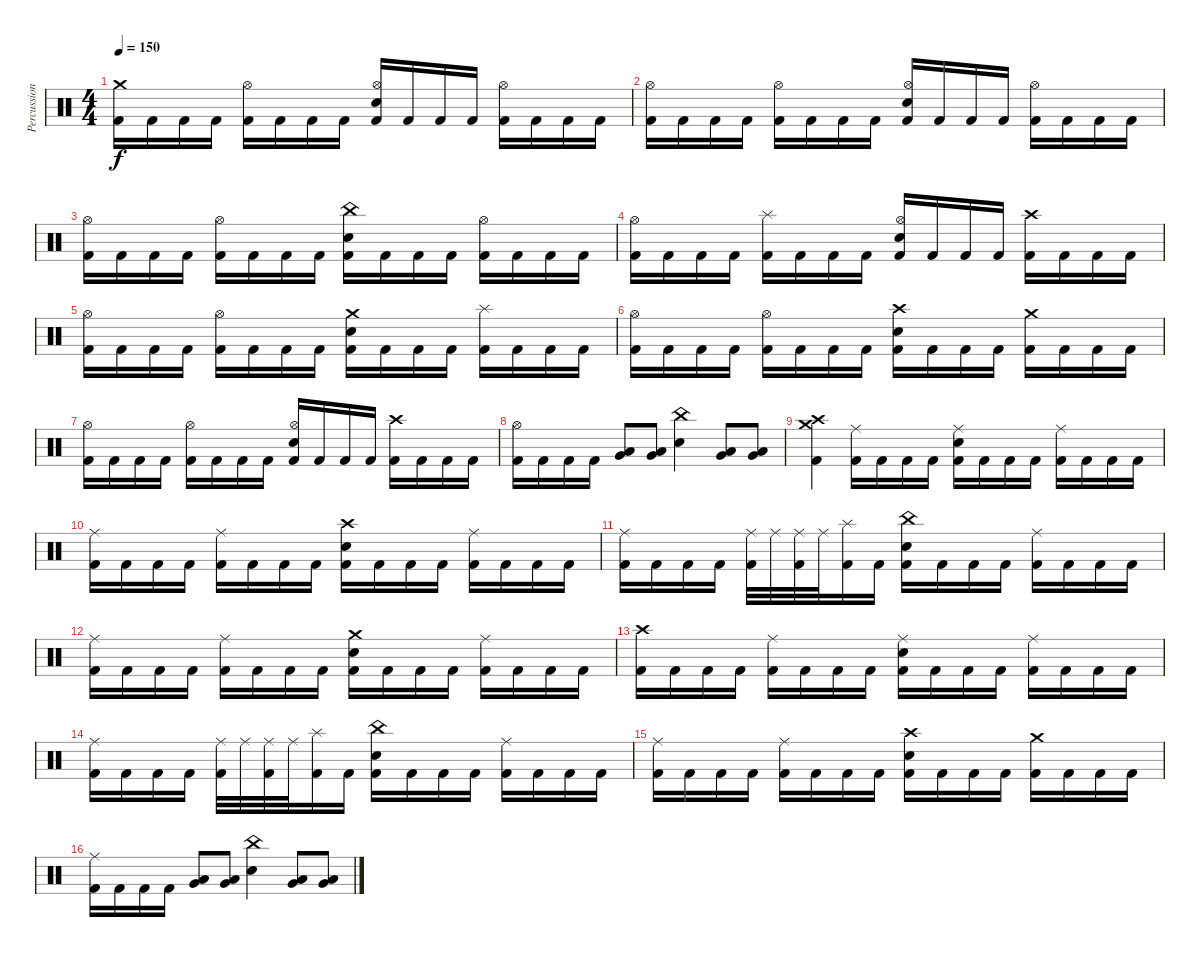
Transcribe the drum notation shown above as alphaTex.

\track ("Percussion" "Percussion") {instrument percussion}
\staff {score}
\articulation defaults
\ts (4 4)
\tempo 150
\clef neutral
\ks c
("Crash medium (hit)" "Kick (hit) 2").16{dy f} "Kick (hit) 2".16 "Kick (hit) 2".16 "Kick (hit) 2".16 ("Hi-Hat (open)" "Kick (hit) 2").16 "Kick (hit) 2".16 "Kick (hit) 2".16 "Kick (hit) 2".16 ("Hi-Hat (open)" "Electric Snare (hit)" "Kick (hit) 2").16 "Kick (hit) 2".16 "Kick (hit) 2".16 "Kick (hit) 2".16 ("Hi-Hat (open)" "Kick (hit) 2").16 "Kick (hit) 2".16 "Kick (hit) 2".16 "Kick (hit) 2".16 |
("Hi-Hat (open)" "Kick (hit) 2").16 "Kick (hit) 2".16 "Kick (hit) 2".16 "Kick (hit) 2".16 ("Hi-Hat (open)" "Kick (hit) 2").16 "Kick (hit) 2".16 "Kick (hit) 2".16 "Kick (hit) 2".16 ("Hi-Hat (open)" "Electric Snare (hit)" "Kick (hit) 2").16 "Kick (hit) 2".16 "Kick (hit) 2".16 "Kick (hit) 2".16 ("Hi-Hat (open)" "Kick (hit) 2").16 "Kick (hit) 2".16 "Kick (hit) 2".16 "Kick (hit) 2".16 |
("Hi-Hat (open)" "Kick (hit) 2").16 "Kick (hit) 2".16 "Kick (hit) 2".16 "Kick (hit) 2".16 ("Hi-Hat (open)" "Kick (hit) 2").16 "Kick (hit) 2".16 "Kick (hit) 2".16 "Kick (hit) 2".16 ("China (hit)" "Electric Snare (hit)" "Kick (hit) 2").16 "Kick (hit) 2".16 "Kick (hit) 2".16 "Kick (hit) 2".16 ("Hi-Hat (open)" "Kick (hit) 2").16 "Kick (hit) 2".16 "Kick (hit) 2".16 "Kick (hit) 2".16 |
("Hi-Hat (open)" "Kick (hit) 2").16 "Kick (hit) 2".16 "Kick (hit) 2".16 "Kick (hit) 2".16 ("Splash (hit)" "Kick (hit) 2").16 "Kick (hit) 2".16 "Kick (hit) 2".16 "Kick (hit) 2".16 ("Hi-Hat (open)" "Electric Snare (hit)" "Kick (hit) 2").16 "Kick (hit) 2".16 "Kick (hit) 2".16 "Kick (hit) 2".16 ("Crash high (hit)" "Kick (hit) 2").16 "Kick (hit) 2".16 "Kick (hit) 2".16 "Kick (hit) 2".16 |
("Hi-Hat (open)" "Kick (hit) 2").16 "Kick (hit) 2".16 "Kick (hit) 2".16 "Kick (hit) 2".16 ("Hi-Hat (open)" "Kick (hit) 2").16 "Kick (hit) 2".16 "Kick (hit) 2".16 "Kick (hit) 2".16 ("Crash medium (hit)" "Electric Snare (hit)" "Kick (hit) 2").16 "Kick (hit) 2".16 "Kick (hit) 2".16 "Kick (hit) 2".16 ("Splash (hit)" "Kick (hit) 2").16 "Kick (hit) 2".16 "Kick (hit) 2".16 "Kick (hit) 2".16 |
("Hi-Hat (open)" "Kick (hit) 2").16 "Kick (hit) 2".16 "Kick (hit) 2".16 "Kick (hit) 2".16 ("Hi-Hat (open)" "Kick (hit) 2").16 "Kick (hit) 2".16 "Kick (hit) 2".16 "Kick (hit) 2".16 ("Crash high (hit)" "Electric Snare (hit)" "Kick (hit) 2").16 "Kick (hit) 2".16 "Kick (hit) 2".16 "Kick (hit) 2".16 ("Crash medium (hit)" "Kick (hit) 2").16 "Kick (hit) 2".16 "Kick (hit) 2".16 "Kick (hit) 2".16 |
("Hi-Hat (open)" "Kick (hit) 2").16 "Kick (hit) 2".16 "Kick (hit) 2".16 "Kick (hit) 2".16 ("Hi-Hat (open)" "Kick (hit) 2").16 "Kick (hit) 2".16 "Kick (hit) 2".16 "Kick (hit) 2".16 ("Hi-Hat (open)" "Electric Snare (hit)" "Kick (hit) 2").16 "Kick (hit) 2".16 "Kick (hit) 2".16 "Kick (hit) 2".16 ("Crash high (hit)" "Kick (hit) 2").16 "Kick (hit) 2".16 "Kick (hit) 2".16 "Kick (hit) 2".16 |
("Hi-Hat (open)" "Kick (hit) 2").16 "Kick (hit) 2".16 "Kick (hit) 2".16 "Kick (hit) 2".16 ("Very Low Tom (hit)" "Low Tom (hit)").8 ("Very Low Tom (hit)" "Low Tom (hit)").8 ("China (hit)" "Electric Snare (hit)").4 ("Very Low Tom (hit)" "Low Tom (hit)").8 ("Very Low Tom (hit)" "Low Tom (hit)").8 |
("Crash medium (hit)" "Crash high (hit)" "Kick (hit) 2").4 ("Ride (middle)" "Kick (hit) 2").16 "Kick (hit) 2".16 "Kick (hit) 2".16 "Kick (hit) 2".16 ("Ride (middle)" "Electric Snare (hit)" "Kick (hit) 2").16 "Kick (hit) 2".16 "Kick (hit) 2".16 "Kick (hit) 2".16 ("Ride (middle)" "Kick (hit) 2").16 "Kick (hit) 2".16 "Kick (hit) 2".16 "Kick (hit) 2".16 |
("Ride (middle)" "Kick (hit) 2").16 "Kick (hit) 2".16 "Kick (hit) 2".16 "Kick (hit) 2".16 ("Ride (middle)" "Kick (hit) 2").16 "Kick (hit) 2".16 "Kick (hit) 2".16 "Kick (hit) 2".16 ("Crash high (hit)" "Electric Snare (hit)" "Kick (hit) 2").16 "Kick (hit) 2".16 "Kick (hit) 2".16 "Kick (hit) 2".16 ("Ride (middle)" "Kick (hit) 2").16 "Kick (hit) 2".16 "Kick (hit) 2".16 "Kick (hit) 2".16 |
("Ride (middle)" "Kick (hit) 2").16 "Kick (hit) 2".16 "Kick (hit) 2".16 "Kick (hit) 2".16 ("Ride (middle)" "Kick (hit) 2").32 "Ride (middle)".32 ("Ride (middle)" "Kick (hit) 2").32 "Ride (middle)".32 ("Splash (hit)" "Kick (hit) 2").16 "Kick (hit) 2".16 ("China (hit)" "Electric Snare (hit)" "Kick (hit) 2").16 "Kick (hit) 2".16 "Kick (hit) 2".16 "Kick (hit) 2".16 ("Ride (middle)" "Kick (hit) 2").16 "Kick (hit) 2".16 "Kick (hit) 2".16 "Kick (hit) 2".16 |
("Ride (middle)" "Kick (hit) 2").16 "Kick (hit) 2".16 "Kick (hit) 2".16 "Kick (hit) 2".16 ("Ride (middle)" "Kick (hit) 2").16 "Kick (hit) 2".16 "Kick (hit) 2".16 "Kick (hit) 2".16 ("Crash medium (hit)" "Electric Snare (hit)" "Kick (hit) 2").16 "Kick (hit) 2".16 "Kick (hit) 2".16 "Kick (hit) 2".16 ("Ride (middle)" "Kick (hit) 2").16 "Kick (hit) 2".16 "Kick (hit) 2".16 "Kick (hit) 2".16 |
("Crash high (hit)" "Kick (hit) 2").16 "Kick (hit) 2".16 "Kick (hit) 2".16 "Kick (hit) 2".16 ("Ride (middle)" "Kick (hit) 2").16 "Kick (hit) 2".16 "Kick (hit) 2".16 "Kick (hit) 2".16 ("Ride (middle)" "Electric Snare (hit)" "Kick (hit) 2").16 "Kick (hit) 2".16 "Kick (hit) 2".16 "Kick (hit) 2".16 ("Ride (middle)" "Kick (hit) 2").16 "Kick (hit) 2".16 "Kick (hit) 2".16 "Kick (hit) 2".16 |
("Ride (middle)" "Kick (hit) 2").16 "Kick (hit) 2".16 "Kick (hit) 2".16 "Kick (hit) 2".16 ("Ride (middle)" "Kick (hit) 2").32 "Ride (middle)".32 ("Ride (middle)" "Kick (hit) 2").32 "Ride (middle)".32 ("Splash (hit)" "Kick (hit) 2").16 "Kick (hit) 2".16 ("China (hit)" "Electric Snare (hit)" "Kick (hit) 2").16 "Kick (hit) 2".16 "Kick (hit) 2".16 "Kick (hit) 2".16 ("Ride (middle)" "Kick (hit) 2").16 "Kick (hit) 2".16 "Kick (hit) 2".16 "Kick (hit) 2".16 |
("Ride (middle)" "Kick (hit) 2").16 "Kick (hit) 2".16 "Kick (hit) 2".16 "Kick (hit) 2".16 ("Ride (middle)" "Kick (hit) 2").16 "Kick (hit) 2".16 "Kick (hit) 2".16 "Kick (hit) 2".16 ("Crash high (hit)" "Electric Snare (hit)" "Kick (hit) 2").16 "Kick (hit) 2".16 "Kick (hit) 2".16 "Kick (hit) 2".16 ("Crash medium (hit)" "Kick (hit) 2").16 "Kick (hit) 2".16 "Kick (hit) 2".16 "Kick (hit) 2".16 |
("Ride (middle)" "Kick (hit) 2").16 "Kick (hit) 2".16 "Kick (hit) 2".16 "Kick (hit) 2".16 ("Very Low Tom (hit)" "Low Tom (hit)").8 ("Very Low Tom (hit)" "Low Tom (hit)").8 ("China (hit)" "Electric Snare (hit)").4 ("Very Low Tom (hit)" "Low Tom (hit)").8 ("Very Low Tom (hit)" "Low Tom (hit)").8
